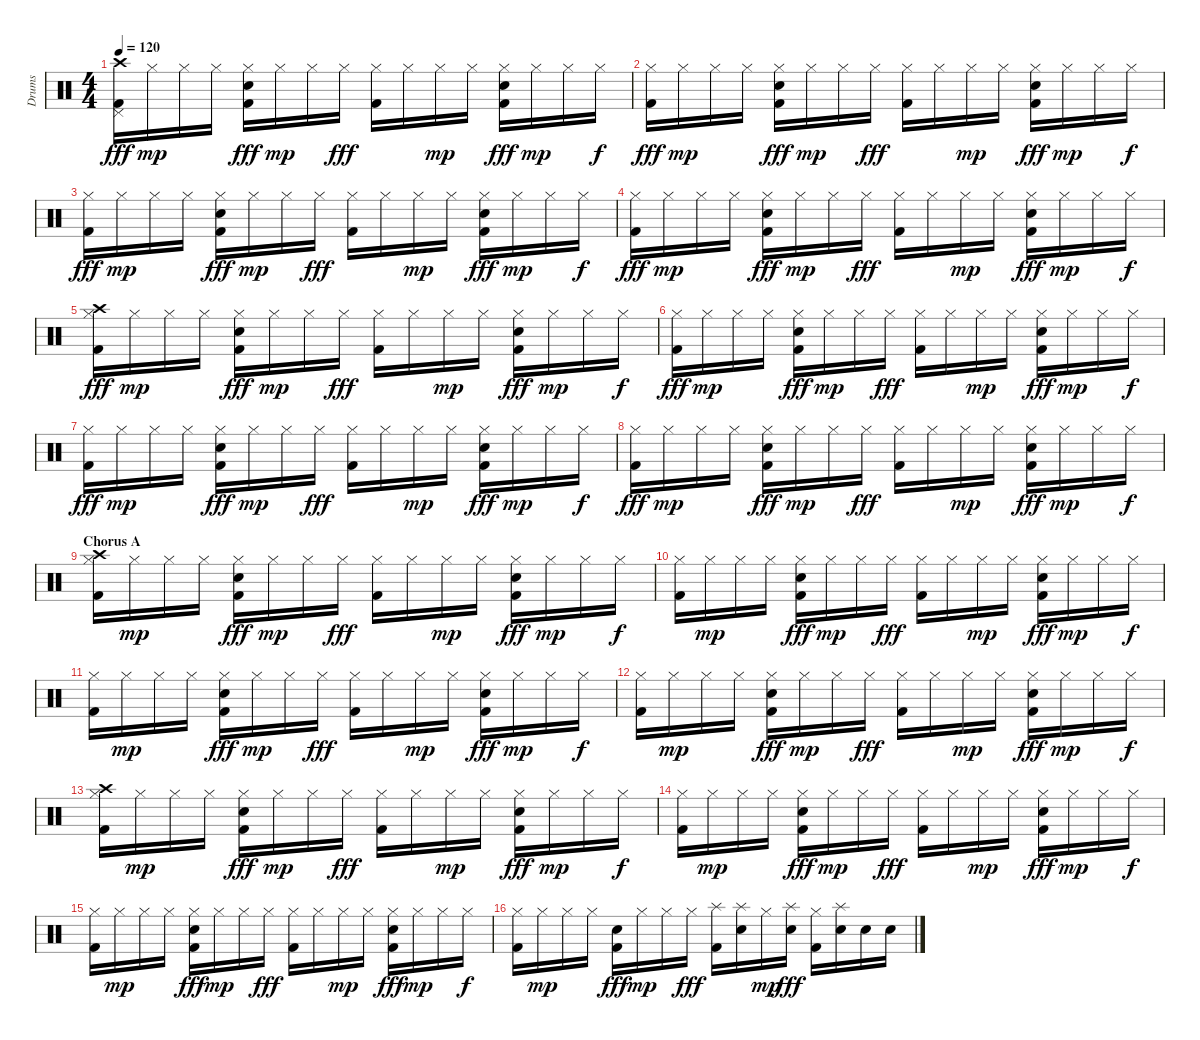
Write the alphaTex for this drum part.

\track ("Drums" "Drums") {instrument percussion}
\staff {score}
\articulation defaults
\ts (4 4)
\tempo 120
\clef neutral
\ks c
("Pedal Hi-Hat (hit)" "Crash high (hit)" "Kick (hit) 2").16{dy fff} "Hi-Hat (closed)".16{dy mp} "Hi-Hat (closed)".16 "Hi-Hat (closed)".16 ("Hi-Hat (closed)" "Snare (hit) 2" "Kick (hit) 2").16{dy fff} "Hi-Hat (closed)".16{dy mp} "Hi-Hat (closed)".16 "Hi-Hat (closed)".16{dy fff} ("Hi-Hat (closed)" "Kick (hit) 2").16 "Hi-Hat (closed)".16 "Hi-Hat (closed)".16{dy mp} "Hi-Hat (closed)".16 ("Hi-Hat (closed)" "Snare (hit) 2" "Kick (hit) 2").16{dy fff} "Hi-Hat (closed)".16{dy mp} "Hi-Hat (closed)".16 "Hi-Hat (closed)".16{dy f} |
("Hi-Hat (closed)" "Kick (hit) 2").16{dy fff} "Hi-Hat (closed)".16{dy mp} "Hi-Hat (closed)".16 "Hi-Hat (closed)".16 ("Hi-Hat (closed)" "Snare (hit) 2" "Kick (hit) 2").16{dy fff} "Hi-Hat (closed)".16{dy mp} "Hi-Hat (closed)".16 "Hi-Hat (closed)".16{dy fff} ("Hi-Hat (closed)" "Kick (hit) 2").16 "Hi-Hat (closed)".16 "Hi-Hat (closed)".16{dy mp} "Hi-Hat (closed)".16 ("Hi-Hat (closed)" "Snare (hit) 2" "Kick (hit) 2").16{dy fff} "Hi-Hat (closed)".16{dy mp} "Hi-Hat (closed)".16 "Hi-Hat (closed)".16{dy f} |
("Hi-Hat (closed)" "Kick (hit) 2").16{dy fff} "Hi-Hat (closed)".16{dy mp} "Hi-Hat (closed)".16 "Hi-Hat (closed)".16 ("Hi-Hat (closed)" "Snare (hit) 2" "Kick (hit) 2").16{dy fff} "Hi-Hat (closed)".16{dy mp} "Hi-Hat (closed)".16 "Hi-Hat (closed)".16{dy fff} ("Hi-Hat (closed)" "Kick (hit) 2").16 "Hi-Hat (closed)".16 "Hi-Hat (closed)".16{dy mp} "Hi-Hat (closed)".16 ("Hi-Hat (closed)" "Snare (hit) 2" "Kick (hit) 2").16{dy fff} "Hi-Hat (closed)".16{dy mp} "Hi-Hat (closed)".16 "Hi-Hat (closed)".16{dy f} |
("Hi-Hat (closed)" "Kick (hit) 2").16{dy fff} "Hi-Hat (closed)".16{dy mp} "Hi-Hat (closed)".16 "Hi-Hat (closed)".16 ("Hi-Hat (closed)" "Snare (hit) 2" "Kick (hit) 2").16{dy fff} "Hi-Hat (closed)".16{dy mp} "Hi-Hat (closed)".16 "Hi-Hat (closed)".16{dy fff} ("Hi-Hat (closed)" "Kick (hit) 2").16 "Hi-Hat (closed)".16 "Hi-Hat (closed)".16{dy mp} "Hi-Hat (closed)".16 ("Hi-Hat (closed)" "Snare (hit) 2" "Kick (hit) 2").16{dy fff} "Hi-Hat (closed)".16{dy mp} "Hi-Hat (closed)".16 "Hi-Hat (closed)".16{dy f} |
("Hi-Hat (closed)" "Crash high (hit)" "Kick (hit) 2").16{dy fff} "Hi-Hat (closed)".16{dy mp} "Hi-Hat (closed)".16 "Hi-Hat (closed)".16 ("Hi-Hat (closed)" "Snare (hit) 2" "Kick (hit) 2").16{dy fff} "Hi-Hat (closed)".16{dy mp} "Hi-Hat (closed)".16 "Hi-Hat (closed)".16{dy fff} ("Hi-Hat (closed)" "Kick (hit) 2").16 "Hi-Hat (closed)".16 "Hi-Hat (closed)".16{dy mp} "Hi-Hat (closed)".16 ("Hi-Hat (closed)" "Snare (hit) 2" "Kick (hit) 2").16{dy fff} "Hi-Hat (closed)".16{dy mp} "Hi-Hat (closed)".16 "Hi-Hat (closed)".16{dy f} |
("Hi-Hat (closed)" "Kick (hit) 2").16{dy fff} "Hi-Hat (closed)".16{dy mp} "Hi-Hat (closed)".16 "Hi-Hat (closed)".16 ("Hi-Hat (closed)" "Snare (hit) 2" "Kick (hit) 2").16{dy fff} "Hi-Hat (closed)".16{dy mp} "Hi-Hat (closed)".16 "Hi-Hat (closed)".16{dy fff} ("Hi-Hat (closed)" "Kick (hit) 2").16 "Hi-Hat (closed)".16 "Hi-Hat (closed)".16{dy mp} "Hi-Hat (closed)".16 ("Hi-Hat (closed)" "Snare (hit) 2" "Kick (hit) 2").16{dy fff} "Hi-Hat (closed)".16{dy mp} "Hi-Hat (closed)".16 "Hi-Hat (closed)".16{dy f} |
("Hi-Hat (closed)" "Kick (hit) 2").16{dy fff} "Hi-Hat (closed)".16{dy mp} "Hi-Hat (closed)".16 "Hi-Hat (closed)".16 ("Hi-Hat (closed)" "Snare (hit) 2" "Kick (hit) 2").16{dy fff} "Hi-Hat (closed)".16{dy mp} "Hi-Hat (closed)".16 "Hi-Hat (closed)".16{dy fff} ("Hi-Hat (closed)" "Kick (hit) 2").16 "Hi-Hat (closed)".16 "Hi-Hat (closed)".16{dy mp} "Hi-Hat (closed)".16 ("Hi-Hat (closed)" "Snare (hit) 2" "Kick (hit) 2").16{dy fff} "Hi-Hat (closed)".16{dy mp} "Hi-Hat (closed)".16 "Hi-Hat (closed)".16{dy f} |
("Hi-Hat (closed)" "Kick (hit) 2").16{dy fff} "Hi-Hat (closed)".16{dy mp} "Hi-Hat (closed)".16 "Hi-Hat (closed)".16 ("Hi-Hat (closed)" "Snare (hit) 2" "Kick (hit) 2").16{dy fff} "Hi-Hat (closed)".16{dy mp} "Hi-Hat (closed)".16 "Hi-Hat (closed)".16{dy fff} ("Hi-Hat (closed)" "Kick (hit) 2").16 "Hi-Hat (closed)".16 "Hi-Hat (closed)".16{dy mp} "Hi-Hat (closed)".16 ("Hi-Hat (closed)" "Snare (hit) 2" "Kick (hit) 2").16{dy fff} "Hi-Hat (closed)".16{dy mp} "Hi-Hat (closed)".16 "Hi-Hat (closed)".16{dy f} |
\section ("" "Chorus A")
("Hi-Hat (closed)" "Crash high (hit)" "Kick (hit) 2").16 "Hi-Hat (closed)".16{dy mp} "Hi-Hat (closed)".16 "Hi-Hat (closed)".16 ("Hi-Hat (closed)" "Snare (hit) 2" "Kick (hit) 2").16{dy fff} "Hi-Hat (closed)".16{dy mp} "Hi-Hat (closed)".16 "Hi-Hat (closed)".16{dy fff} ("Hi-Hat (closed)" "Kick (hit) 2").16 "Hi-Hat (closed)".16 "Hi-Hat (closed)".16{dy mp} "Hi-Hat (closed)".16 ("Hi-Hat (closed)" "Snare (hit) 2" "Kick (hit) 2").16{dy fff} "Hi-Hat (closed)".16{dy mp} "Hi-Hat (closed)".16 "Hi-Hat (closed)".16{dy f} |
("Hi-Hat (closed)" "Kick (hit) 2").16 "Hi-Hat (closed)".16{dy mp} "Hi-Hat (closed)".16 "Hi-Hat (closed)".16 ("Hi-Hat (closed)" "Snare (hit) 2" "Kick (hit) 2").16{dy fff} "Hi-Hat (closed)".16{dy mp} "Hi-Hat (closed)".16 "Hi-Hat (closed)".16{dy fff} ("Hi-Hat (closed)" "Kick (hit) 2").16 "Hi-Hat (closed)".16 "Hi-Hat (closed)".16{dy mp} "Hi-Hat (closed)".16 ("Hi-Hat (closed)" "Snare (hit) 2" "Kick (hit) 2").16{dy fff} "Hi-Hat (closed)".16{dy mp} "Hi-Hat (closed)".16 "Hi-Hat (closed)".16{dy f} |
("Hi-Hat (closed)" "Kick (hit) 2").16 "Hi-Hat (closed)".16{dy mp} "Hi-Hat (closed)".16 "Hi-Hat (closed)".16 ("Hi-Hat (closed)" "Snare (hit) 2" "Kick (hit) 2").16{dy fff} "Hi-Hat (closed)".16{dy mp} "Hi-Hat (closed)".16 "Hi-Hat (closed)".16{dy fff} ("Hi-Hat (closed)" "Kick (hit) 2").16 "Hi-Hat (closed)".16 "Hi-Hat (closed)".16{dy mp} "Hi-Hat (closed)".16 ("Hi-Hat (closed)" "Snare (hit) 2" "Kick (hit) 2").16{dy fff} "Hi-Hat (closed)".16{dy mp} "Hi-Hat (closed)".16 "Hi-Hat (closed)".16{dy f} |
("Hi-Hat (closed)" "Kick (hit) 2").16 "Hi-Hat (closed)".16{dy mp} "Hi-Hat (closed)".16 "Hi-Hat (closed)".16 ("Hi-Hat (closed)" "Snare (hit) 2" "Kick (hit) 2").16{dy fff} "Hi-Hat (closed)".16{dy mp} "Hi-Hat (closed)".16 "Hi-Hat (closed)".16{dy fff} ("Hi-Hat (closed)" "Kick (hit) 2").16 "Hi-Hat (closed)".16 "Hi-Hat (closed)".16{dy mp} "Hi-Hat (closed)".16 ("Hi-Hat (closed)" "Snare (hit) 2" "Kick (hit) 2").16{dy fff} "Hi-Hat (closed)".16{dy mp} "Hi-Hat (closed)".16 "Hi-Hat (closed)".16{dy f} |
("Hi-Hat (closed)" "Crash high (hit)" "Kick (hit) 2").16 "Hi-Hat (closed)".16{dy mp} "Hi-Hat (closed)".16 "Hi-Hat (closed)".16 ("Hi-Hat (closed)" "Snare (hit) 2" "Kick (hit) 2").16{dy fff} "Hi-Hat (closed)".16{dy mp} "Hi-Hat (closed)".16 "Hi-Hat (closed)".16{dy fff} ("Hi-Hat (closed)" "Kick (hit) 2").16 "Hi-Hat (closed)".16 "Hi-Hat (closed)".16{dy mp} "Hi-Hat (closed)".16 ("Hi-Hat (closed)" "Snare (hit) 2" "Kick (hit) 2").16{dy fff} "Hi-Hat (closed)".16{dy mp} "Hi-Hat (closed)".16 "Hi-Hat (closed)".16{dy f} |
("Hi-Hat (closed)" "Kick (hit) 2").16 "Hi-Hat (closed)".16{dy mp} "Hi-Hat (closed)".16 "Hi-Hat (closed)".16 ("Hi-Hat (closed)" "Snare (hit) 2" "Kick (hit) 2").16{dy fff} "Hi-Hat (closed)".16{dy mp} "Hi-Hat (closed)".16 "Hi-Hat (closed)".16{dy fff} ("Hi-Hat (closed)" "Kick (hit) 2").16 "Hi-Hat (closed)".16 "Hi-Hat (closed)".16{dy mp} "Hi-Hat (closed)".16 ("Hi-Hat (closed)" "Snare (hit) 2" "Kick (hit) 2").16{dy fff} "Hi-Hat (closed)".16{dy mp} "Hi-Hat (closed)".16 "Hi-Hat (closed)".16{dy f} |
("Hi-Hat (closed)" "Kick (hit) 2").16 "Hi-Hat (closed)".16{dy mp} "Hi-Hat (closed)".16 "Hi-Hat (closed)".16 ("Hi-Hat (closed)" "Snare (hit) 2" "Kick (hit) 2").16{dy fff} "Hi-Hat (closed)".16{dy mp} "Hi-Hat (closed)".16 "Hi-Hat (closed)".16{dy fff} ("Hi-Hat (closed)" "Kick (hit) 2").16 "Hi-Hat (closed)".16 "Hi-Hat (closed)".16{dy mp} "Hi-Hat (closed)".16 ("Hi-Hat (closed)" "Snare (hit) 2" "Kick (hit) 2").16{dy fff} "Hi-Hat (closed)".16{dy mp} "Hi-Hat (closed)".16 "Hi-Hat (closed)".16{dy f} |
("Hi-Hat (closed)" "Kick (hit) 2").16 "Hi-Hat (closed)".16{dy mp} "Hi-Hat (closed)".16 "Hi-Hat (closed)".16 ("Snare (hit) 2" "Kick (hit) 2").16{dy fff} "Hi-Hat (closed)".16{dy mp} "Hi-Hat (closed)".16 "Hi-Hat (closed)".16{dy fff} ("Splash (hit)" "Kick (hit) 2").16 ("Splash (hit)" "Snare (hit) 2").16 "Hi-Hat (closed)".16{dy mp} ("Splash (hit)" "Snare (hit) 2").16{dy fff} ("Hi-Hat (closed)" "Kick (hit) 2").16 ("Splash (hit)" "Snare (hit) 2").16 "Snare (hit) 2".16 "Snare (hit) 2".16
